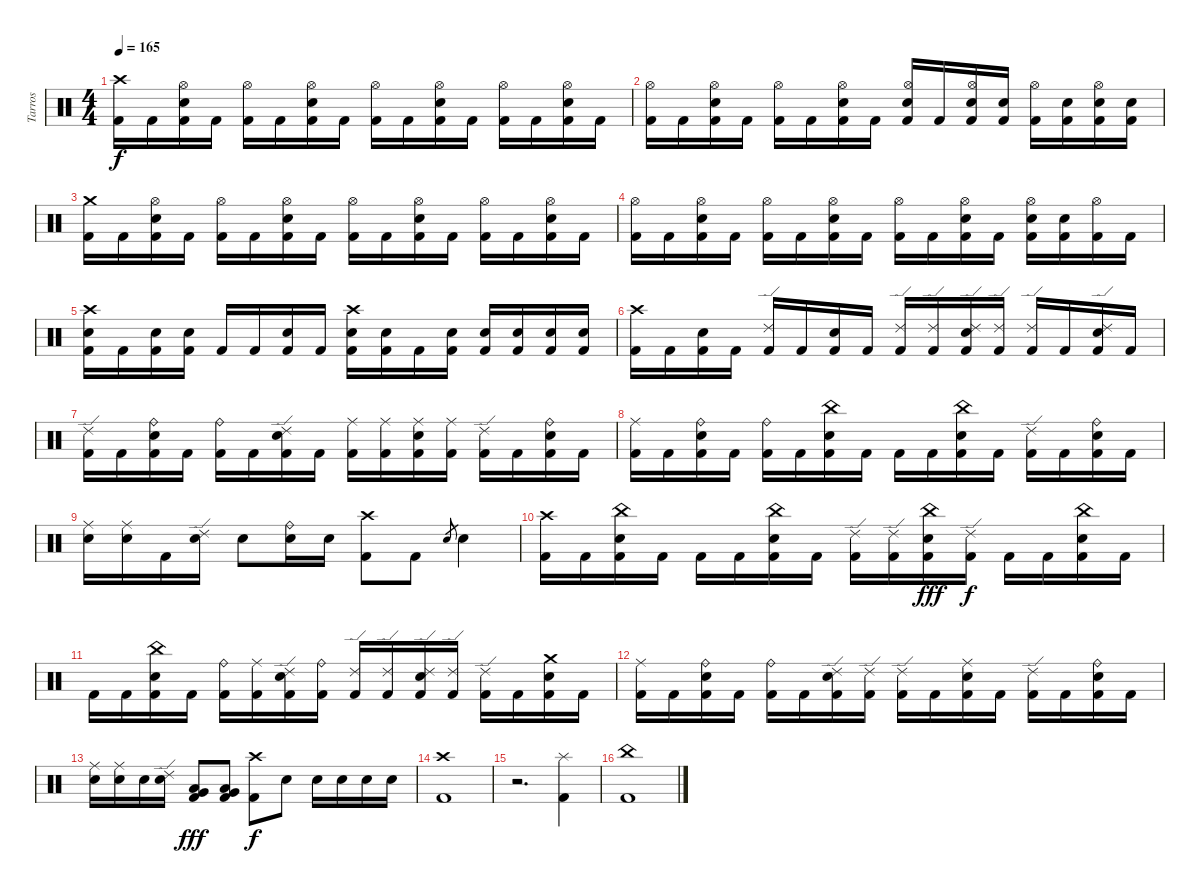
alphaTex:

\track ("Tarros" "Tarros") {instrument percussion}
\staff {score}
\articulation defaults
\ts (4 4)
\tempo 165
\clef neutral
\ks c
("Crash high (hit)" "Kick (hit) 2").16{dy f} "Kick (hit) 2".16 ("Hi-Hat (open)" "Electric Snare (hit)" "Kick (hit) 2").16 "Kick (hit) 2".16 ("Hi-Hat (open)" "Kick (hit) 2").16 "Kick (hit) 2".16 ("Hi-Hat (open)" "Electric Snare (hit)" "Kick (hit) 2").16 "Kick (hit) 2".16 ("Hi-Hat (open)" "Kick (hit) 2").16 "Kick (hit) 2".16 ("Hi-Hat (open)" "Electric Snare (hit)" "Kick (hit) 2").16 "Kick (hit) 2".16 ("Hi-Hat (open)" "Kick (hit) 2").16 "Kick (hit) 2".16 ("Hi-Hat (open)" "Electric Snare (hit)" "Kick (hit) 2").16 "Kick (hit) 2".16 |
("Hi-Hat (open)" "Kick (hit) 2").16 "Kick (hit) 2".16 ("Hi-Hat (open)" "Electric Snare (hit)" "Kick (hit) 2").16 "Kick (hit) 2".16 ("Hi-Hat (open)" "Kick (hit) 2").16 "Kick (hit) 2".16 ("Hi-Hat (open)" "Electric Snare (hit)" "Kick (hit) 2").16 "Kick (hit) 2".16 ("Hi-Hat (open)" "Electric Snare (hit)" "Kick (hit) 2").16 "Kick (hit) 2".16 ("Hi-Hat (open)" "Electric Snare (hit)" "Kick (hit) 2").16 ("Electric Snare (hit)" "Kick (hit) 2").16 ("Hi-Hat (open)" "Kick (hit) 2").16 ("Electric Snare (hit)" "Kick (hit) 2").16 ("Hi-Hat (open)" "Electric Snare (hit)" "Kick (hit) 2").16 ("Electric Snare (hit)" "Kick (hit) 2").16 |
("Crash medium (hit)" "Kick (hit) 2").16 "Kick (hit) 2".16 ("Hi-Hat (open)" "Electric Snare (hit)" "Kick (hit) 2").16 "Kick (hit) 2".16 ("Hi-Hat (open)" "Kick (hit) 2").16 "Kick (hit) 2".16 ("Hi-Hat (open)" "Electric Snare (hit)" "Kick (hit) 2").16 "Kick (hit) 2".16 ("Hi-Hat (open)" "Kick (hit) 2").16 "Kick (hit) 2".16 ("Hi-Hat (open)" "Electric Snare (hit)" "Kick (hit) 2").16 "Kick (hit) 2".16 ("Hi-Hat (open)" "Kick (hit) 2").16 "Kick (hit) 2".16 ("Hi-Hat (open)" "Electric Snare (hit)" "Kick (hit) 2").16 "Kick (hit) 2".16 |
("Hi-Hat (open)" "Kick (hit) 2").16 "Kick (hit) 2".16 ("Hi-Hat (open)" "Electric Snare (hit)" "Kick (hit) 2").16 "Kick (hit) 2".16 ("Hi-Hat (open)" "Kick (hit) 2").16 "Kick (hit) 2".16 ("Hi-Hat (open)" "Electric Snare (hit)" "Kick (hit) 2").16 "Kick (hit) 2".16 ("Hi-Hat (open)" "Kick (hit) 2").16 "Kick (hit) 2".16 ("Hi-Hat (open)" "Electric Snare (hit)" "Kick (hit) 2").16 "Kick (hit) 2".16 ("Hi-Hat (open)" "Electric Snare (hit)" "Kick (hit) 2").16 ("Electric Snare (hit)" "Kick (hit) 2").16 ("Hi-Hat (open)" "Kick (hit) 2").16 "Kick (hit) 2".16 |
("Crash high (hit)" "Electric Snare (hit)" "Kick (hit) 2").16 "Kick (hit) 2".16 ("Electric Snare (hit)" "Kick (hit) 2").16 ("Electric Snare (hit)" "Kick (hit) 2").16 "Kick (hit) 2".16 "Kick (hit) 2".16 ("Electric Snare (hit)" "Kick (hit) 2").16 "Kick (hit) 2".16 ("Crash high (hit)" "Electric Snare (hit)" "Kick (hit) 2").16 ("Electric Snare (hit)" "Kick (hit) 2").16 "Kick (hit) 2".16 ("Electric Snare (hit)" "Kick (hit) 2").16 ("Electric Snare (hit)" "Kick (hit) 2").16 ("Electric Snare (hit)" "Kick (hit) 2").16 ("Electric Snare (hit)" "Kick (hit) 2").16 ("Electric Snare (hit)" "Kick (hit) 2").16 |
("Crash high (hit)" "Kick (hit) 2").16 "Kick (hit) 2".16 ("Electric Snare (hit)" "Kick (hit) 2").16 "Kick (hit) 2".16 ("Ride (edge) 2" "Kick (hit) 2").16 "Kick (hit) 2".16 ("Electric Snare (hit)" "Kick (hit) 2").16 "Kick (hit) 2".16 ("Ride (edge) 2" "Kick (hit) 2").16 ("Ride (edge) 2" "Kick (hit) 2").16 ("Ride (edge) 2" "Electric Snare (hit)" "Kick (hit) 2").16 ("Ride (edge) 2" "Kick (hit) 2").16 ("Ride (edge) 2" "Kick (hit) 2").16 "Kick (hit) 2".16 ("Ride (edge) 2" "Electric Snare (hit)" "Kick (hit) 2").16 "Kick (hit) 2".16 |
("Ride (edge) 2" "Kick (hit) 2").16 "Kick (hit) 2".16 ("Ride (bell)" "Electric Snare (hit)" "Kick (hit) 2").16 "Kick (hit) 2".16 ("Ride (bell)" "Kick (hit) 2").16 "Kick (hit) 2".16 ("Ride (edge) 2" "Electric Snare (hit)" "Kick (hit) 2").16 "Kick (hit) 2".16 ("Ride (middle)" "Kick (hit) 2").16 ("Ride (middle)" "Kick (hit) 2").16 ("Ride (middle)" "Electric Snare (hit)" "Kick (hit) 2").16 ("Ride (middle)" "Kick (hit) 2").16 ("Ride (edge) 2" "Kick (hit) 2").16 "Kick (hit) 2".16 ("Ride (bell)" "Electric Snare (hit)" "Kick (hit) 2").16 "Kick (hit) 2".16 |
("Ride (middle)" "Kick (hit) 2").16 "Kick (hit) 2".16 ("Ride (bell)" "Electric Snare (hit)" "Kick (hit) 2").16 "Kick (hit) 2".16 ("Ride (bell)" "Kick (hit) 2").16 "Kick (hit) 2".16 ("China (hit)" "Electric Snare (hit)" "Kick (hit) 2").16 "Kick (hit) 2".16 "Kick (hit) 2".16 "Kick (hit) 2".16 ("China (hit)" "Electric Snare (hit)" "Kick (hit) 2").16 "Kick (hit) 2".16 ("Ride (edge) 2" "Kick (hit) 2").16 "Kick (hit) 2".16 ("Ride (bell)" "Electric Snare (hit)" "Kick (hit) 2").16 "Kick (hit) 2".16 |
("Ride (middle)" "Electric Snare (hit)").16 ("Ride (middle)" "Electric Snare (hit)").16 "Kick (hit) 2".16 ("Ride (edge) 2" "Electric Snare (hit)").16 "Electric Snare (hit)".8 ("Ride (bell)" "Electric Snare (hit)").16 "Electric Snare (hit)".16 ("Crash high (hit)" "Kick (hit) 2").8 "Kick (hit) 2".8 "Electric Snare (hit)".8{gr} "Electric Snare (hit)".4 |
("Crash high (hit)" "Kick (hit) 2").16 "Kick (hit) 2".16 ("China (hit)" "Electric Snare (hit)" "Kick (hit) 2").16 "Kick (hit) 2".16 "Kick (hit) 2".16 "Kick (hit) 2".16 ("China (hit)" "Electric Snare (hit)" "Kick (hit) 2").16 "Kick (hit) 2".16 ("Ride (edge) 2" "Kick (hit) 2").16 ("Ride (edge) 2" "Kick (hit) 2").16 ("China (hit)" "Electric Snare (hit)" "Kick (hit) 2").16{dy fff} ("Ride (edge) 2" "Kick (hit) 2").16{dy f} "Kick (hit) 2".16 "Kick (hit) 2".16 ("China (hit)" "Electric Snare (hit)" "Kick (hit) 2").16 "Kick (hit) 2".16 |
"Kick (hit) 2".16 "Kick (hit) 2".16 ("China (hit)" "Electric Snare (hit)" "Kick (hit) 2").16 "Kick (hit) 2".16 ("Ride (bell)" "Kick (hit) 2").16 ("Ride (middle)" "Kick (hit) 2").16 ("Ride (edge) 2" "Electric Snare (hit)" "Kick (hit) 2").16 ("Ride (bell)" "Kick (hit) 2").16 ("Ride (edge) 2" "Kick (hit) 2").16 ("Ride (edge) 2" "Kick (hit) 2").16 ("Ride (edge) 2" "Electric Snare (hit)" "Kick (hit) 2").16 ("Ride (edge) 2" "Kick (hit) 2").16 ("Ride (edge) 2" "Kick (hit) 2").16 "Kick (hit) 2".16 ("Crash medium (hit)" "Electric Snare (hit)" "Kick (hit) 2").16 "Kick (hit) 2".16 |
("Ride (middle)" "Kick (hit) 2").16 "Kick (hit) 2".16 ("Ride (bell)" "Electric Snare (hit)" "Kick (hit) 2").16 "Kick (hit) 2".16 ("Ride (bell)" "Kick (hit) 2").16 "Kick (hit) 2".16 ("Ride (edge) 2" "Electric Snare (hit)" "Kick (hit) 2").16 ("Ride (edge) 2" "Kick (hit) 2").16 ("Ride (edge) 2" "Kick (hit) 2").16 "Kick (hit) 2".16 ("Ride (middle)" "Electric Snare (hit)" "Kick (hit) 2").16 "Kick (hit) 2".16 ("Ride (edge) 2" "Kick (hit) 2").16 "Kick (hit) 2".16 ("Ride (bell)" "Electric Snare (hit)" "Kick (hit) 2").16 "Kick (hit) 2".16 |
("Ride (middle)" "Electric Snare (hit)").16 ("Ride (middle)" "Electric Snare (hit)").16 "Electric Snare (hit)".16 ("Ride (edge) 2" "Electric Snare (hit)").16 ("Very Low Tom (hit)" "Low Floor Tom (hit)" "Kick (hit) 2").8{dy fff} ("Very Low Tom (hit)" "Low Floor Tom (hit)" "Kick (hit) 2").8 ("Crash high (hit)" "Kick (hit) 2").8{dy f} "Electric Snare (hit)".8 "Electric Snare (hit)".16 "Electric Snare (hit)".16 "Electric Snare (hit)".16 "Electric Snare (hit)".16 |
("Crash high (hit)" "Kick (hit) 2").1 |
r.2{d} ("Splash (hit)" "Kick (hit) 2").4 |
("China (hit)" "Kick (hit) 2").1
